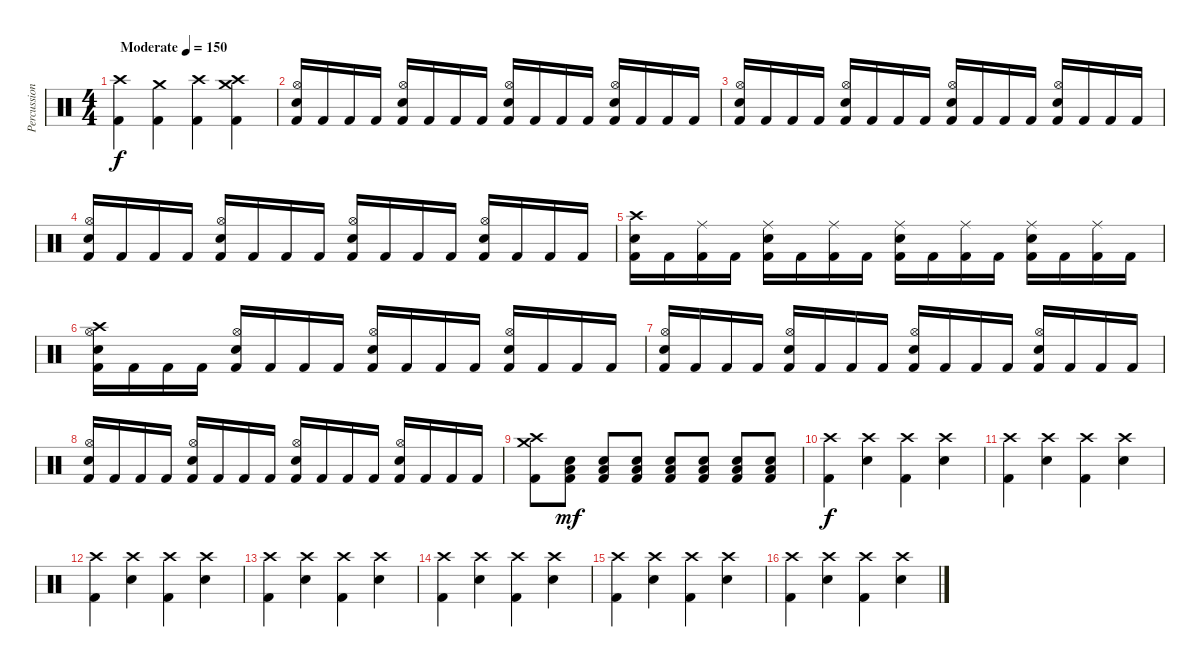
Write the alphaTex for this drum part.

\track ("Percussion" "Percussion") {instrument percussion}
\staff {score}
\articulation defaults
\ts (4 4)
\tempo (150 "Moderate")
\clef neutral
\ks c
("Crash high (hit)" "Kick (hit) 2").4{dy f} ("Crash medium (hit)" "Kick (hit) 2").4 ("Crash high (hit)" "Kick (hit) 2").4 ("Crash medium (hit)" "Crash high (hit)" "Kick (hit) 2").4 |
("Hi-Hat (open)" "Electric Snare (hit)" "Kick (hit) 2").16 "Kick (hit) 2".16 "Kick (hit) 2".16 "Kick (hit) 2".16 ("Hi-Hat (open)" "Electric Snare (hit)" "Kick (hit) 2").16 "Kick (hit) 2".16 "Kick (hit) 2".16 "Kick (hit) 2".16 ("Hi-Hat (open)" "Electric Snare (hit)" "Kick (hit) 2").16 "Kick (hit) 2".16 "Kick (hit) 2".16 "Kick (hit) 2".16 ("Hi-Hat (open)" "Electric Snare (hit)" "Kick (hit) 2").16 "Kick (hit) 2".16 "Kick (hit) 2".16 "Kick (hit) 2".16 |
("Hi-Hat (open)" "Electric Snare (hit)" "Kick (hit) 2").16 "Kick (hit) 2".16 "Kick (hit) 2".16 "Kick (hit) 2".16 ("Hi-Hat (open)" "Electric Snare (hit)" "Kick (hit) 2").16 "Kick (hit) 2".16 "Kick (hit) 2".16 "Kick (hit) 2".16 ("Hi-Hat (open)" "Electric Snare (hit)" "Kick (hit) 2").16 "Kick (hit) 2".16 "Kick (hit) 2".16 "Kick (hit) 2".16 ("Hi-Hat (open)" "Electric Snare (hit)" "Kick (hit) 2").16 "Kick (hit) 2".16 "Kick (hit) 2".16 "Kick (hit) 2".16 |
("Hi-Hat (open)" "Electric Snare (hit)" "Kick (hit) 2").16 "Kick (hit) 2".16 "Kick (hit) 2".16 "Kick (hit) 2".16 ("Hi-Hat (open)" "Electric Snare (hit)" "Kick (hit) 2").16 "Kick (hit) 2".16 "Kick (hit) 2".16 "Kick (hit) 2".16 ("Hi-Hat (open)" "Electric Snare (hit)" "Kick (hit) 2").16 "Kick (hit) 2".16 "Kick (hit) 2".16 "Kick (hit) 2".16 ("Hi-Hat (open)" "Electric Snare (hit)" "Kick (hit) 2").16 "Kick (hit) 2".16 "Kick (hit) 2".16 "Kick (hit) 2".16 |
("Crash high (hit)" "Electric Snare (hit)" "Kick (hit) 2").16 "Kick (hit) 2".16 ("Ride (middle)" "Kick (hit) 2").16 "Kick (hit) 2".16 ("Ride (middle)" "Electric Snare (hit)" "Kick (hit) 2").16 "Kick (hit) 2".16 ("Ride (middle)" "Kick (hit) 2").16 "Kick (hit) 2".16 ("Ride (middle)" "Electric Snare (hit)" "Kick (hit) 2").16 "Kick (hit) 2".16 ("Ride (middle)" "Kick (hit) 2").16 "Kick (hit) 2".16 ("Ride (middle)" "Electric Snare (hit)" "Kick (hit) 2").16 "Kick (hit) 2".16 ("Ride (middle)" "Kick (hit) 2").16 "Kick (hit) 2".16 |
("Crash high (hit)" "Hi-Hat (open)" "Electric Snare (hit)" "Kick (hit) 2").16 "Kick (hit) 2".16 "Kick (hit) 2".16 "Kick (hit) 2".16 ("Hi-Hat (open)" "Electric Snare (hit)" "Kick (hit) 2").16 "Kick (hit) 2".16 "Kick (hit) 2".16 "Kick (hit) 2".16 ("Hi-Hat (open)" "Electric Snare (hit)" "Kick (hit) 2").16 "Kick (hit) 2".16 "Kick (hit) 2".16 "Kick (hit) 2".16 ("Hi-Hat (open)" "Electric Snare (hit)" "Kick (hit) 2").16 "Kick (hit) 2".16 "Kick (hit) 2".16 "Kick (hit) 2".16 |
("Hi-Hat (open)" "Electric Snare (hit)" "Kick (hit) 2").16 "Kick (hit) 2".16 "Kick (hit) 2".16 "Kick (hit) 2".16 ("Hi-Hat (open)" "Electric Snare (hit)" "Kick (hit) 2").16 "Kick (hit) 2".16 "Kick (hit) 2".16 "Kick (hit) 2".16 ("Hi-Hat (open)" "Electric Snare (hit)" "Kick (hit) 2").16 "Kick (hit) 2".16 "Kick (hit) 2".16 "Kick (hit) 2".16 ("Hi-Hat (open)" "Electric Snare (hit)" "Kick (hit) 2").16 "Kick (hit) 2".16 "Kick (hit) 2".16 "Kick (hit) 2".16 |
("Hi-Hat (open)" "Electric Snare (hit)" "Kick (hit) 2").16 "Kick (hit) 2".16 "Kick (hit) 2".16 "Kick (hit) 2".16 ("Hi-Hat (open)" "Electric Snare (hit)" "Kick (hit) 2").16 "Kick (hit) 2".16 "Kick (hit) 2".16 "Kick (hit) 2".16 ("Hi-Hat (open)" "Electric Snare (hit)" "Kick (hit) 2").16 "Kick (hit) 2".16 "Kick (hit) 2".16 "Kick (hit) 2".16 ("Hi-Hat (open)" "Electric Snare (hit)" "Kick (hit) 2").16 "Kick (hit) 2".16 "Kick (hit) 2".16 "Kick (hit) 2".16 |
("Crash medium (hit)" "Crash high (hit)" "Kick (hit) 2").8 ("Electric Snare (hit)" "Low Floor Tom (hit)" "Kick (hit) 2").8{dy mf} ("Electric Snare (hit)" "Low Floor Tom (hit)" "Kick (hit) 2").8 ("Electric Snare (hit)" "Low Floor Tom (hit)" "Kick (hit) 2").8 ("Electric Snare (hit)" "Low Floor Tom (hit)" "Kick (hit) 2").8 ("Electric Snare (hit)" "Low Floor Tom (hit)" "Kick (hit) 2").8 ("Electric Snare (hit)" "Low Floor Tom (hit)" "Kick (hit) 2").8 ("Electric Snare (hit)" "Low Floor Tom (hit)" "Kick (hit) 2").8 |
("Crash high (hit)" "Kick (hit) 2").4{dy f} ("Crash high (hit)" "Electric Snare (hit)").4 ("Crash high (hit)" "Kick (hit) 2").4 ("Crash high (hit)" "Electric Snare (hit)").4 |
("Crash high (hit)" "Kick (hit) 2").4 ("Crash high (hit)" "Electric Snare (hit)").4 ("Crash high (hit)" "Kick (hit) 2").4 ("Crash high (hit)" "Electric Snare (hit)").4 |
("Crash high (hit)" "Kick (hit) 2").4 ("Crash high (hit)" "Electric Snare (hit)").4 ("Crash high (hit)" "Kick (hit) 2").4 ("Crash high (hit)" "Electric Snare (hit)").4 |
("Crash high (hit)" "Kick (hit) 2").4 ("Crash high (hit)" "Electric Snare (hit)").4 ("Crash high (hit)" "Kick (hit) 2").4 ("Crash high (hit)" "Electric Snare (hit)").4 |
("Crash high (hit)" "Kick (hit) 2").4 ("Crash high (hit)" "Electric Snare (hit)").4 ("Crash high (hit)" "Kick (hit) 2").4 ("Crash high (hit)" "Electric Snare (hit)").4 |
("Crash high (hit)" "Kick (hit) 2").4 ("Crash high (hit)" "Electric Snare (hit)").4 ("Crash high (hit)" "Kick (hit) 2").4 ("Crash high (hit)" "Electric Snare (hit)").4 |
("Crash high (hit)" "Kick (hit) 2").4 ("Crash high (hit)" "Electric Snare (hit)").4 ("Crash high (hit)" "Kick (hit) 2").4 ("Crash high (hit)" "Electric Snare (hit)").4
